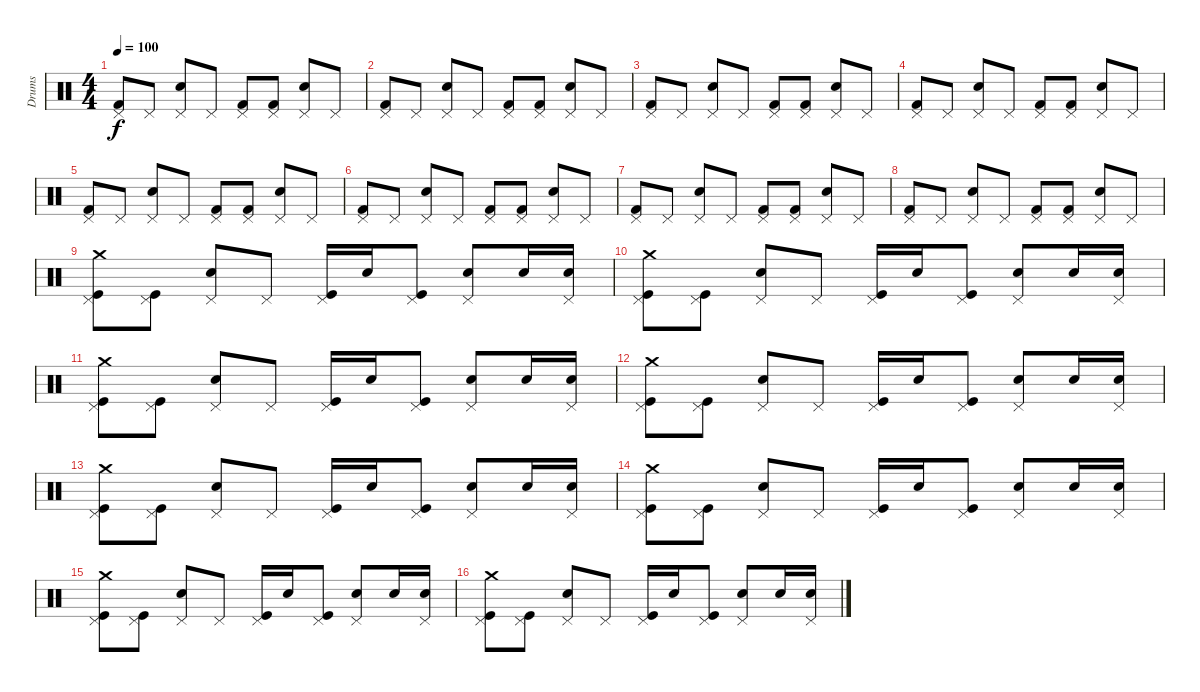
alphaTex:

\track ("Drums" "Drums") {instrument percussion}
\staff {score}
\articulation defaults
\ts (4 4)
\tempo 100
\clef neutral
\ks c
("Kick (hit) 2" "Pedal Hi-Hat (hit)").8{dy f} "Pedal Hi-Hat (hit)".8 ("Electric Snare (hit)" "Pedal Hi-Hat (hit)").8 "Pedal Hi-Hat (hit)".8 ("Kick (hit) 2" "Pedal Hi-Hat (hit)").8 ("Kick (hit) 2" "Pedal Hi-Hat (hit)").8 ("Electric Snare (hit)" "Pedal Hi-Hat (hit)").8 "Pedal Hi-Hat (hit)".8 |
("Kick (hit) 2" "Pedal Hi-Hat (hit)").8 "Pedal Hi-Hat (hit)".8 ("Electric Snare (hit)" "Pedal Hi-Hat (hit)").8 "Pedal Hi-Hat (hit)".8 ("Kick (hit) 2" "Pedal Hi-Hat (hit)").8 ("Kick (hit) 2" "Pedal Hi-Hat (hit)").8 ("Electric Snare (hit)" "Pedal Hi-Hat (hit)").8 "Pedal Hi-Hat (hit)".8 |
("Kick (hit) 2" "Pedal Hi-Hat (hit)").8 "Pedal Hi-Hat (hit)".8 ("Electric Snare (hit)" "Pedal Hi-Hat (hit)").8 "Pedal Hi-Hat (hit)".8 ("Kick (hit) 2" "Pedal Hi-Hat (hit)").8 ("Kick (hit) 2" "Pedal Hi-Hat (hit)").8 ("Electric Snare (hit)" "Pedal Hi-Hat (hit)").8 "Pedal Hi-Hat (hit)".8 |
("Kick (hit) 2" "Pedal Hi-Hat (hit)").8 "Pedal Hi-Hat (hit)".8 ("Electric Snare (hit)" "Pedal Hi-Hat (hit)").8 "Pedal Hi-Hat (hit)".8 ("Kick (hit) 2" "Pedal Hi-Hat (hit)").8 ("Kick (hit) 2" "Pedal Hi-Hat (hit)").8 ("Electric Snare (hit)" "Pedal Hi-Hat (hit)").8 "Pedal Hi-Hat (hit)".8 |
("Kick (hit) 2" "Pedal Hi-Hat (hit)").8 "Pedal Hi-Hat (hit)".8 ("Electric Snare (hit)" "Pedal Hi-Hat (hit)").8 "Pedal Hi-Hat (hit)".8 ("Kick (hit) 2" "Pedal Hi-Hat (hit)").8 ("Kick (hit) 2" "Pedal Hi-Hat (hit)").8 ("Electric Snare (hit)" "Pedal Hi-Hat (hit)").8 "Pedal Hi-Hat (hit)".8 |
("Kick (hit) 2" "Pedal Hi-Hat (hit)").8 "Pedal Hi-Hat (hit)".8 ("Electric Snare (hit)" "Pedal Hi-Hat (hit)").8 "Pedal Hi-Hat (hit)".8 ("Kick (hit) 2" "Pedal Hi-Hat (hit)").8 ("Kick (hit) 2" "Pedal Hi-Hat (hit)").8 ("Electric Snare (hit)" "Pedal Hi-Hat (hit)").8 "Pedal Hi-Hat (hit)".8 |
("Kick (hit) 2" "Pedal Hi-Hat (hit)").8 "Pedal Hi-Hat (hit)".8 ("Electric Snare (hit)" "Pedal Hi-Hat (hit)").8 "Pedal Hi-Hat (hit)".8 ("Kick (hit) 2" "Pedal Hi-Hat (hit)").8 ("Kick (hit) 2" "Pedal Hi-Hat (hit)").8 ("Electric Snare (hit)" "Pedal Hi-Hat (hit)").8 "Pedal Hi-Hat (hit)".8 |
("Kick (hit) 2" "Pedal Hi-Hat (hit)").8 "Pedal Hi-Hat (hit)".8 ("Electric Snare (hit)" "Pedal Hi-Hat (hit)").8 "Pedal Hi-Hat (hit)".8 ("Kick (hit) 2" "Pedal Hi-Hat (hit)").8 ("Kick (hit) 2" "Pedal Hi-Hat (hit)").8 ("Electric Snare (hit)" "Pedal Hi-Hat (hit)").8 "Pedal Hi-Hat (hit)".8 |
("Pedal Hi-Hat (hit)" "Kick (hit)" "Crash medium (hit)").8 ("Pedal Hi-Hat (hit)" "Kick (hit)").8 ("Pedal Hi-Hat (hit)" "Electric Snare (hit)").8 "Pedal Hi-Hat (hit)".8 ("Pedal Hi-Hat (hit)" "Kick (hit)").16 "Electric Snare (hit)".16 ("Pedal Hi-Hat (hit)" "Kick (hit)").8 ("Pedal Hi-Hat (hit)" "Electric Snare (hit)").8 "Electric Snare (hit)".16 ("Pedal Hi-Hat (hit)" "Electric Snare (hit)").16 |
("Pedal Hi-Hat (hit)" "Kick (hit)" "Crash medium (hit)").8 ("Pedal Hi-Hat (hit)" "Kick (hit)").8 ("Pedal Hi-Hat (hit)" "Electric Snare (hit)").8 "Pedal Hi-Hat (hit)".8 ("Pedal Hi-Hat (hit)" "Kick (hit)").16 "Electric Snare (hit)".16 ("Pedal Hi-Hat (hit)" "Kick (hit)").8 ("Pedal Hi-Hat (hit)" "Electric Snare (hit)").8 "Electric Snare (hit)".16 ("Pedal Hi-Hat (hit)" "Electric Snare (hit)").16 |
("Pedal Hi-Hat (hit)" "Kick (hit)" "Crash medium (hit)").8 ("Pedal Hi-Hat (hit)" "Kick (hit)").8 ("Pedal Hi-Hat (hit)" "Electric Snare (hit)").8 "Pedal Hi-Hat (hit)".8 ("Pedal Hi-Hat (hit)" "Kick (hit)").16 "Electric Snare (hit)".16 ("Pedal Hi-Hat (hit)" "Kick (hit)").8 ("Pedal Hi-Hat (hit)" "Electric Snare (hit)").8 "Electric Snare (hit)".16 ("Pedal Hi-Hat (hit)" "Electric Snare (hit)").16 |
("Pedal Hi-Hat (hit)" "Kick (hit)" "Crash medium (hit)").8 ("Pedal Hi-Hat (hit)" "Kick (hit)").8 ("Pedal Hi-Hat (hit)" "Electric Snare (hit)").8 "Pedal Hi-Hat (hit)".8 ("Pedal Hi-Hat (hit)" "Kick (hit)").16 "Electric Snare (hit)".16 ("Pedal Hi-Hat (hit)" "Kick (hit)").8 ("Pedal Hi-Hat (hit)" "Electric Snare (hit)").8 "Electric Snare (hit)".16 ("Pedal Hi-Hat (hit)" "Electric Snare (hit)").16 |
("Pedal Hi-Hat (hit)" "Kick (hit)" "Crash medium (hit)").8 ("Pedal Hi-Hat (hit)" "Kick (hit)").8 ("Pedal Hi-Hat (hit)" "Electric Snare (hit)").8 "Pedal Hi-Hat (hit)".8 ("Pedal Hi-Hat (hit)" "Kick (hit)").16 "Electric Snare (hit)".16 ("Pedal Hi-Hat (hit)" "Kick (hit)").8 ("Pedal Hi-Hat (hit)" "Electric Snare (hit)").8 "Electric Snare (hit)".16 ("Pedal Hi-Hat (hit)" "Electric Snare (hit)").16 |
("Pedal Hi-Hat (hit)" "Kick (hit)" "Crash medium (hit)").8 ("Pedal Hi-Hat (hit)" "Kick (hit)").8 ("Pedal Hi-Hat (hit)" "Electric Snare (hit)").8 "Pedal Hi-Hat (hit)".8 ("Pedal Hi-Hat (hit)" "Kick (hit)").16 "Electric Snare (hit)".16 ("Pedal Hi-Hat (hit)" "Kick (hit)").8 ("Pedal Hi-Hat (hit)" "Electric Snare (hit)").8 "Electric Snare (hit)".16 ("Pedal Hi-Hat (hit)" "Electric Snare (hit)").16 |
("Pedal Hi-Hat (hit)" "Kick (hit)" "Crash medium (hit)").8 ("Pedal Hi-Hat (hit)" "Kick (hit)").8 ("Pedal Hi-Hat (hit)" "Electric Snare (hit)").8 "Pedal Hi-Hat (hit)".8 ("Pedal Hi-Hat (hit)" "Kick (hit)").16 "Electric Snare (hit)".16 ("Pedal Hi-Hat (hit)" "Kick (hit)").8 ("Pedal Hi-Hat (hit)" "Electric Snare (hit)").8 "Electric Snare (hit)".16 ("Pedal Hi-Hat (hit)" "Electric Snare (hit)").16 |
("Pedal Hi-Hat (hit)" "Kick (hit)" "Crash medium (hit)").8 ("Pedal Hi-Hat (hit)" "Kick (hit)").8 ("Pedal Hi-Hat (hit)" "Electric Snare (hit)").8 "Pedal Hi-Hat (hit)".8 ("Pedal Hi-Hat (hit)" "Kick (hit)").16 "Electric Snare (hit)".16 ("Pedal Hi-Hat (hit)" "Kick (hit)").8 ("Pedal Hi-Hat (hit)" "Electric Snare (hit)").8 "Electric Snare (hit)".16 ("Pedal Hi-Hat (hit)" "Electric Snare (hit)").16
